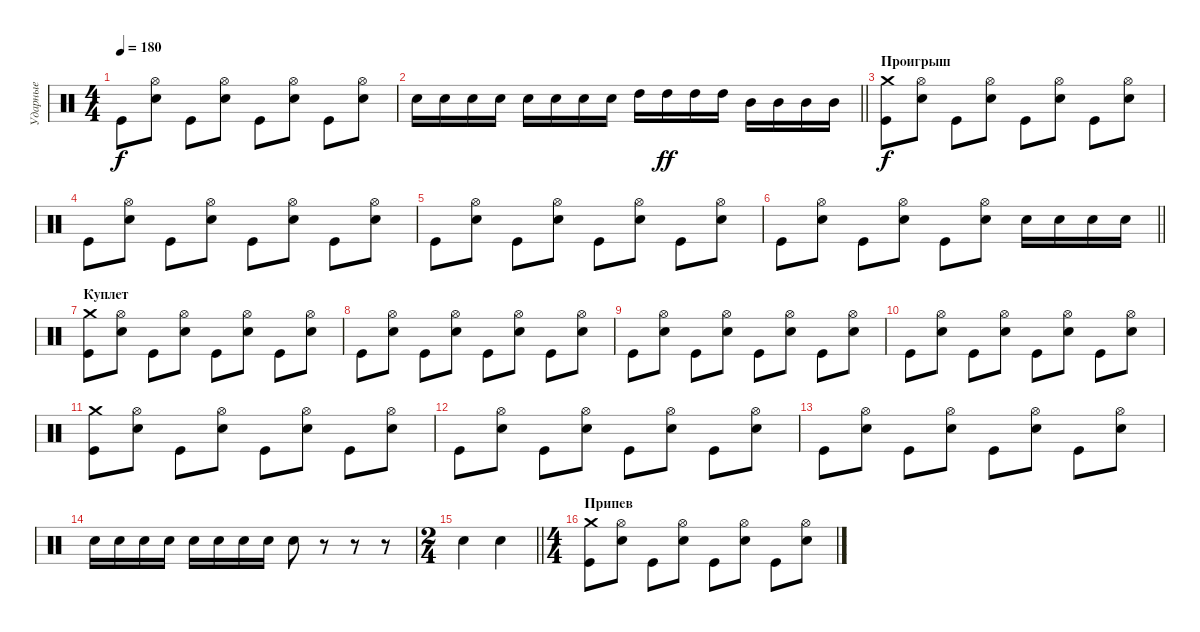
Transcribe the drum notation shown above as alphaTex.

\track ("Ударные" "Ударные") {instrument percussion}
\staff {score}
\articulation defaults
\ts (4 4)
\tempo 180
\clef neutral
\ks c "Kick (hit)".8{dy f}
("Hi-Hat (open)" "Electric Snare (hit)").8 "Kick (hit)".8 ("Hi-Hat (open)" "Electric Snare (hit)").8 "Kick (hit)".8 ("Hi-Hat (open)" "Electric Snare (hit)").8 "Kick (hit)".8 ("Hi-Hat (open)" "Electric Snare (hit)").8 |
\barLineRight lightlight "Electric Snare (hit)".16 "Electric Snare (hit)".16 "Electric Snare (hit)".16 "Electric Snare (hit)".16 "Electric Snare (hit)".16 "Electric Snare (hit)".16 "Electric Snare (hit)".16 "Electric Snare (hit)".16 "High Tom (hit)".16 "High Tom (hit)".16{dy ff} "High Tom (hit)".16 "High Tom (hit)".16 "Mid Tom (hit)".16 "Mid Tom (hit)".16 "Mid Tom (hit)".16 "Mid Tom (hit)".16
|
\section ("" "Проигрыш")
("Crash medium (hit)" "Kick (hit)").8{dy f} ("Hi-Hat (open)" "Electric Snare (hit)").8 "Kick (hit)".8 ("Hi-Hat (open)" "Electric Snare (hit)").8 "Kick (hit)".8 ("Hi-Hat (open)" "Electric Snare (hit)").8 "Kick (hit)".8 ("Hi-Hat (open)" "Electric Snare (hit)").8 |
"Kick (hit)".8 ("Hi-Hat (open)" "Electric Snare (hit)").8 "Kick (hit)".8 ("Hi-Hat (open)" "Electric Snare (hit)").8 "Kick (hit)".8 ("Hi-Hat (open)" "Electric Snare (hit)").8 "Kick (hit)".8 ("Hi-Hat (open)" "Electric Snare (hit)").8 |
"Kick (hit)".8 ("Hi-Hat (open)" "Electric Snare (hit)").8 "Kick (hit)".8 ("Hi-Hat (open)" "Electric Snare (hit)").8 "Kick (hit)".8 ("Hi-Hat (open)" "Electric Snare (hit)").8 "Kick (hit)".8 ("Hi-Hat (open)" "Electric Snare (hit)").8 |
\barLineRight lightlight "Kick (hit)".8
("Hi-Hat (open)" "Electric Snare (hit)").8 "Kick (hit)".8 ("Hi-Hat (open)" "Electric Snare (hit)").8 "Kick (hit)".8 ("Hi-Hat (open)" "Electric Snare (hit)").8 "Electric Snare (hit)".16 "Electric Snare (hit)".16 "Electric Snare (hit)".16 "Electric Snare (hit)".16 |
\section ("" "Куплет")
("Crash medium (hit)" "Kick (hit)").8 ("Hi-Hat (open)" "Electric Snare (hit)").8 "Kick (hit)".8 ("Hi-Hat (open)" "Electric Snare (hit)").8 "Kick (hit)".8 ("Hi-Hat (open)" "Electric Snare (hit)").8 "Kick (hit)".8 ("Hi-Hat (open)" "Electric Snare (hit)").8 |
"Kick (hit)".8 ("Hi-Hat (open)" "Electric Snare (hit)").8 "Kick (hit)".8 ("Hi-Hat (open)" "Electric Snare (hit)").8 "Kick (hit)".8 ("Hi-Hat (open)" "Electric Snare (hit)").8 "Kick (hit)".8 ("Hi-Hat (open)" "Electric Snare (hit)").8 |
"Kick (hit)".8 ("Hi-Hat (open)" "Electric Snare (hit)").8 "Kick (hit)".8 ("Hi-Hat (open)" "Electric Snare (hit)").8 "Kick (hit)".8 ("Hi-Hat (open)" "Electric Snare (hit)").8 "Kick (hit)".8 ("Hi-Hat (open)" "Electric Snare (hit)").8 |
"Kick (hit)".8 ("Hi-Hat (open)" "Electric Snare (hit)").8 "Kick (hit)".8 ("Hi-Hat (open)" "Electric Snare (hit)").8 "Kick (hit)".8 ("Hi-Hat (open)" "Electric Snare (hit)").8 "Kick (hit)".8 ("Hi-Hat (open)" "Electric Snare (hit)").8 |
("Crash medium (hit)" "Kick (hit)").8 ("Hi-Hat (open)" "Electric Snare (hit)").8 "Kick (hit)".8 ("Hi-Hat (open)" "Electric Snare (hit)").8 "Kick (hit)".8 ("Hi-Hat (open)" "Electric Snare (hit)").8 "Kick (hit)".8 ("Hi-Hat (open)" "Electric Snare (hit)").8 |
"Kick (hit)".8 ("Hi-Hat (open)" "Electric Snare (hit)").8 "Kick (hit)".8 ("Hi-Hat (open)" "Electric Snare (hit)").8 "Kick (hit)".8 ("Hi-Hat (open)" "Electric Snare (hit)").8 "Kick (hit)".8 ("Hi-Hat (open)" "Electric Snare (hit)").8 |
"Kick (hit)".8 ("Hi-Hat (open)" "Electric Snare (hit)").8 "Kick (hit)".8 ("Hi-Hat (open)" "Electric Snare (hit)").8 "Kick (hit)".8 ("Hi-Hat (open)" "Electric Snare (hit)").8 "Kick (hit)".8 ("Hi-Hat (open)" "Electric Snare (hit)").8 |
"Electric Snare (hit)".16 "Electric Snare (hit)".16 "Electric Snare (hit)".16 "Electric Snare (hit)".16 "Electric Snare (hit)".16 "Electric Snare (hit)".16 "Electric Snare (hit)".16 "Electric Snare (hit)".16 "Electric Snare (hit)".8 r.8 r.8 r.8 |
\ts (2 4)
\barLineRight lightlight "Electric Snare (hit)".4 "Electric Snare (hit)".4
|
\ts (4 4)
\section ("" "Припев")
("Crash medium (hit)" "Kick (hit)").8 ("Hi-Hat (open)" "Electric Snare (hit)").8 "Kick (hit)".8 ("Hi-Hat (open)" "Electric Snare (hit)").8 "Kick (hit)".8 ("Hi-Hat (open)" "Electric Snare (hit)").8 "Kick (hit)".8 ("Hi-Hat (open)" "Electric Snare (hit)").8
